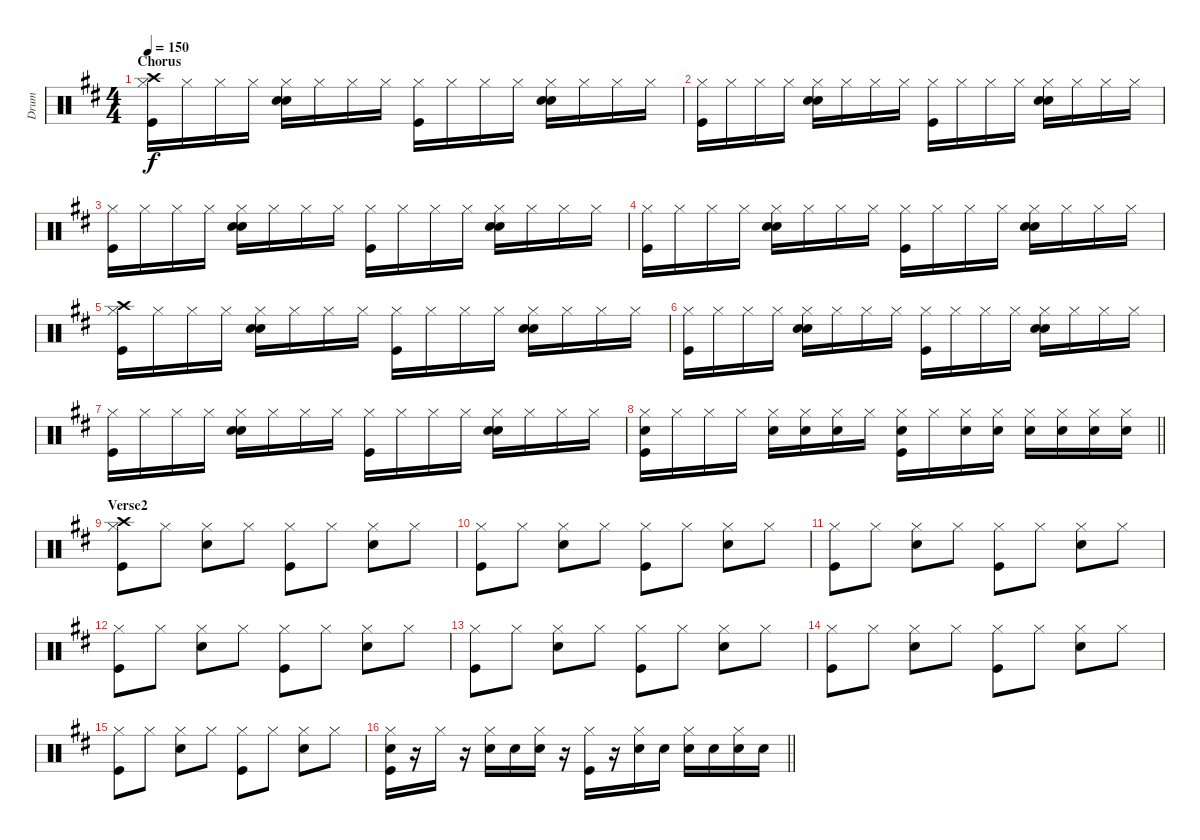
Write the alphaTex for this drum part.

\track ("Drum" "Drum") {instrument percussion}
\staff {score}
\articulation defaults
\ts (4 4)
\section ("" "Chorus")
\tempo 150
\clef neutral
\ks d
("Crash high (hit)" "Hi-Hat (closed)" "Kick (hit)").16{dy f} "Hi-Hat (closed)".16 "Hi-Hat (closed)".16 "Hi-Hat (closed)".16 ("Hi-Hat (closed)" "Snare (hit) 2" "Hand Clap (hit)").16 "Hi-Hat (closed)".16 "Hi-Hat (closed)".16 "Hi-Hat (closed)".16 ("Hi-Hat (closed)" "Kick (hit)").16 "Hi-Hat (closed)".16 "Hi-Hat (closed)".16 "Hi-Hat (closed)".16 ("Hi-Hat (closed)" "Snare (hit) 2" "Hand Clap (hit)").16 "Hi-Hat (closed)".16 "Hi-Hat (closed)".16 "Hi-Hat (closed)".16 |
("Hi-Hat (closed)" "Kick (hit)").16 "Hi-Hat (closed)".16 "Hi-Hat (closed)".16 "Hi-Hat (closed)".16 ("Hi-Hat (closed)" "Snare (hit) 2" "Hand Clap (hit)").16 "Hi-Hat (closed)".16 "Hi-Hat (closed)".16 "Hi-Hat (closed)".16 ("Hi-Hat (closed)" "Kick (hit)").16 "Hi-Hat (closed)".16 "Hi-Hat (closed)".16 "Hi-Hat (closed)".16 ("Hi-Hat (closed)" "Snare (hit) 2" "Hand Clap (hit)").16 "Hi-Hat (closed)".16 "Hi-Hat (closed)".16 "Hi-Hat (closed)".16 |
("Hi-Hat (closed)" "Kick (hit)").16 "Hi-Hat (closed)".16 "Hi-Hat (closed)".16 "Hi-Hat (closed)".16 ("Hi-Hat (closed)" "Snare (hit) 2" "Hand Clap (hit)").16 "Hi-Hat (closed)".16 "Hi-Hat (closed)".16 "Hi-Hat (closed)".16 ("Hi-Hat (closed)" "Kick (hit)").16 "Hi-Hat (closed)".16 "Hi-Hat (closed)".16 "Hi-Hat (closed)".16 ("Hi-Hat (closed)" "Snare (hit) 2" "Hand Clap (hit)").16 "Hi-Hat (closed)".16 "Hi-Hat (closed)".16 "Hi-Hat (closed)".16 |
("Hi-Hat (closed)" "Kick (hit)").16 "Hi-Hat (closed)".16 "Hi-Hat (closed)".16 "Hi-Hat (closed)".16 ("Hi-Hat (closed)" "Snare (hit) 2" "Hand Clap (hit)").16 "Hi-Hat (closed)".16 "Hi-Hat (closed)".16 "Hi-Hat (closed)".16 ("Hi-Hat (closed)" "Kick (hit)").16 "Hi-Hat (closed)".16 "Hi-Hat (closed)".16 "Hi-Hat (closed)".16 ("Hi-Hat (closed)" "Snare (hit) 2" "Hand Clap (hit)").16 "Hi-Hat (closed)".16 "Hi-Hat (closed)".16 "Hi-Hat (closed)".16 |
("Crash high (hit)" "Hi-Hat (closed)" "Kick (hit)").16 "Hi-Hat (closed)".16 "Hi-Hat (closed)".16 "Hi-Hat (closed)".16 ("Hi-Hat (closed)" "Snare (hit) 2" "Hand Clap (hit)").16 "Hi-Hat (closed)".16 "Hi-Hat (closed)".16 "Hi-Hat (closed)".16 ("Hi-Hat (closed)" "Kick (hit)").16 "Hi-Hat (closed)".16 "Hi-Hat (closed)".16 "Hi-Hat (closed)".16 ("Hi-Hat (closed)" "Snare (hit) 2" "Hand Clap (hit)").16 "Hi-Hat (closed)".16 "Hi-Hat (closed)".16 "Hi-Hat (closed)".16 |
("Hi-Hat (closed)" "Kick (hit)").16 "Hi-Hat (closed)".16 "Hi-Hat (closed)".16 "Hi-Hat (closed)".16 ("Hi-Hat (closed)" "Snare (hit) 2" "Hand Clap (hit)").16 "Hi-Hat (closed)".16 "Hi-Hat (closed)".16 "Hi-Hat (closed)".16 ("Hi-Hat (closed)" "Kick (hit)").16 "Hi-Hat (closed)".16 "Hi-Hat (closed)".16 "Hi-Hat (closed)".16 ("Hi-Hat (closed)" "Snare (hit) 2" "Hand Clap (hit)").16 "Hi-Hat (closed)".16 "Hi-Hat (closed)".16 "Hi-Hat (closed)".16 |
("Hi-Hat (closed)" "Kick (hit)").16 "Hi-Hat (closed)".16 "Hi-Hat (closed)".16 "Hi-Hat (closed)".16 ("Hi-Hat (closed)" "Snare (hit) 2" "Hand Clap (hit)").16 "Hi-Hat (closed)".16 "Hi-Hat (closed)".16 "Hi-Hat (closed)".16 ("Hi-Hat (closed)" "Kick (hit)").16 "Hi-Hat (closed)".16 "Hi-Hat (closed)".16 "Hi-Hat (closed)".16 ("Hi-Hat (closed)" "Snare (hit) 2" "Hand Clap (hit)").16 "Hi-Hat (closed)".16 "Hi-Hat (closed)".16 "Hi-Hat (closed)".16 |
\barLineRight lightlight
("Hi-Hat (closed)" "Kick (hit)" "Snare (hit) 2").16 "Hi-Hat (closed)".16 "Hi-Hat (closed)".16 "Hi-Hat (closed)".16 ("Hi-Hat (closed)" "Snare (hit) 2").16 ("Hi-Hat (closed)" "Snare (hit) 2").16 ("Hi-Hat (closed)" "Snare (hit) 2").16 "Hi-Hat (closed)".16 ("Hi-Hat (closed)" "Kick (hit)" "Snare (hit) 2").16 "Hi-Hat (closed)".16 ("Hi-Hat (closed)" "Snare (hit) 2").16 ("Hi-Hat (closed)" "Snare (hit) 2").16 ("Hi-Hat (closed)" "Snare (hit) 2").16 ("Hi-Hat (closed)" "Snare (hit) 2").16 ("Hi-Hat (closed)" "Snare (hit) 2").16 ("Hi-Hat (closed)" "Snare (hit) 2").16 |
\section ("" "Verse2")
("Crash high (hit)" "Hi-Hat (closed)" "Kick (hit)").8 "Hi-Hat (closed)".8 ("Hi-Hat (closed)" "Snare (hit) 2").8 "Hi-Hat (closed)".8 ("Hi-Hat (closed)" "Kick (hit)").8 "Hi-Hat (closed)".8 ("Hi-Hat (closed)" "Snare (hit) 2").8 "Hi-Hat (closed)".8 |
("Hi-Hat (closed)" "Kick (hit)").8 "Hi-Hat (closed)".8 ("Hi-Hat (closed)" "Snare (hit) 2").8 "Hi-Hat (closed)".8 ("Hi-Hat (closed)" "Kick (hit)").8 "Hi-Hat (closed)".8 ("Hi-Hat (closed)" "Snare (hit) 2").8 "Hi-Hat (closed)".8 |
("Hi-Hat (closed)" "Kick (hit)").8 "Hi-Hat (closed)".8 ("Hi-Hat (closed)" "Snare (hit) 2").8 "Hi-Hat (closed)".8 ("Hi-Hat (closed)" "Kick (hit)").8 "Hi-Hat (closed)".8 ("Hi-Hat (closed)" "Snare (hit) 2").8 "Hi-Hat (closed)".8 |
("Hi-Hat (closed)" "Kick (hit)").8 "Hi-Hat (closed)".8 ("Hi-Hat (closed)" "Snare (hit) 2").8 "Hi-Hat (closed)".8 ("Hi-Hat (closed)" "Kick (hit)").8 "Hi-Hat (closed)".8 ("Hi-Hat (closed)" "Snare (hit) 2").8 "Hi-Hat (closed)".8 |
("Hi-Hat (closed)" "Kick (hit)").8 "Hi-Hat (closed)".8 ("Hi-Hat (closed)" "Snare (hit) 2").8 "Hi-Hat (closed)".8 ("Hi-Hat (closed)" "Kick (hit)").8 "Hi-Hat (closed)".8 ("Hi-Hat (closed)" "Snare (hit) 2").8 "Hi-Hat (closed)".8 |
("Hi-Hat (closed)" "Kick (hit)").8 "Hi-Hat (closed)".8 ("Hi-Hat (closed)" "Snare (hit) 2").8 "Hi-Hat (closed)".8 ("Hi-Hat (closed)" "Kick (hit)").8 "Hi-Hat (closed)".8 ("Hi-Hat (closed)" "Snare (hit) 2").8 "Hi-Hat (closed)".8 |
("Hi-Hat (closed)" "Kick (hit)").8 "Hi-Hat (closed)".8 ("Hi-Hat (closed)" "Snare (hit) 2").8 "Hi-Hat (closed)".8 ("Hi-Hat (closed)" "Kick (hit)").8 "Hi-Hat (closed)".8 ("Hi-Hat (closed)" "Snare (hit) 2").8 "Hi-Hat (closed)".8 |
\barLineRight lightlight
("Hi-Hat (closed)" "Kick (hit)" "Snare (hit) 2").16 r.16 "Hi-Hat (closed)".16 r.16 ("Hi-Hat (closed)" "Snare (hit) 2").16 "Snare (hit) 2".16 ("Hi-Hat (closed)" "Snare (hit) 2").16 r.16 ("Hi-Hat (closed)" "Kick (hit)").16 r.16 ("Hi-Hat (closed)" "Snare (hit) 2").16 "Snare (hit) 2".16 ("Hi-Hat (closed)" "Snare (hit) 2").16 "Snare (hit) 2".16 ("Hi-Hat (closed)" "Snare (hit) 2").16 "Snare (hit) 2".16
